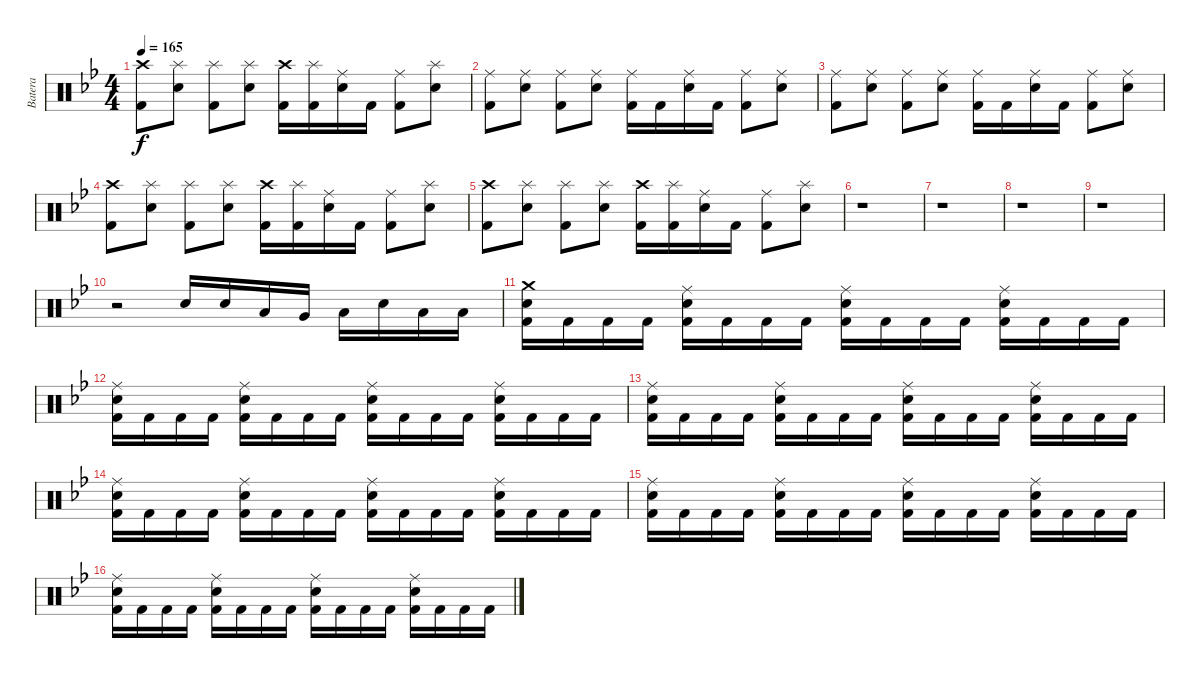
\track ("Batera" "Batera") {instrument percussion}
\staff {score}
\articulation defaults
\ts (4 4)
\tempo 165
\clef neutral
\ks bb
("Crash high (hit)" "Kick (hit) 2").8{dy f} ("Splash (hit)" "Electric Snare (hit)").8 ("Splash (hit)" "Kick (hit) 2").8 ("Splash (hit)" "Electric Snare (hit)").8 ("Crash high (hit)" "Kick (hit) 2").16 ("Splash (hit)" "Kick (hit) 2").16 ("Ride (middle)" "Electric Snare (hit)").16 "Kick (hit) 2".16 ("Ride (middle)" "Kick (hit) 2").8 ("Splash (hit)" "Electric Snare (hit)").8 |
("Ride (middle)" "Kick (hit) 2").8 ("Ride (middle)" "Electric Snare (hit)").8 ("Ride (middle)" "Kick (hit) 2").8 ("Ride (middle)" "Electric Snare (hit)").8 ("Ride (middle)" "Kick (hit) 2").16 "Kick (hit) 2".16 ("Ride (middle)" "Electric Snare (hit)").16 "Kick (hit) 2".16 ("Ride (middle)" "Kick (hit) 2").8 ("Ride (middle)" "Electric Snare (hit)").8 |
("Ride (middle)" "Kick (hit) 2").8 ("Ride (middle)" "Electric Snare (hit)").8 ("Ride (middle)" "Kick (hit) 2").8 ("Ride (middle)" "Electric Snare (hit)").8 ("Ride (middle)" "Kick (hit) 2").16 "Kick (hit) 2".16 ("Ride (middle)" "Electric Snare (hit)").16 "Kick (hit) 2".16 ("Ride (middle)" "Kick (hit) 2").8 ("Ride (middle)" "Electric Snare (hit)").8 |
("Crash high (hit)" "Kick (hit) 2").8 ("Splash (hit)" "Electric Snare (hit)").8 ("Splash (hit)" "Kick (hit) 2").8 ("Splash (hit)" "Electric Snare (hit)").8 ("Crash high (hit)" "Kick (hit) 2").16 ("Splash (hit)" "Kick (hit) 2").16 ("Ride (middle)" "Electric Snare (hit)").16 "Kick (hit) 2".16 ("Ride (middle)" "Kick (hit) 2").8 ("Splash (hit)" "Electric Snare (hit)").8 |
("Crash high (hit)" "Kick (hit) 2").8 ("Splash (hit)" "Electric Snare (hit)").8 ("Splash (hit)" "Kick (hit) 2").8 ("Splash (hit)" "Electric Snare (hit)").8 ("Crash high (hit)" "Kick (hit) 2").16 ("Splash (hit)" "Kick (hit) 2").16 ("Ride (middle)" "Electric Snare (hit)").16 "Kick (hit) 2".16 ("Ride (middle)" "Kick (hit) 2").8 ("Splash (hit)" "Electric Snare (hit)").8 |
r.1 |
r.1 |
r.1 |
r.1 |
r.2 "Electric Snare (hit)".16 "Electric Snare (hit)".16 "Low Floor Tom (hit)".16 "Very Low Tom (hit)".16 "Low Floor Tom (hit)".16 "Electric Snare (hit)".16 "Low Floor Tom (hit)".16 "Low Tom (hit)".16 |
("Crash medium (hit)" "Electric Snare (hit)" "Kick (hit) 2").16 "Kick (hit) 2".16 "Kick (hit) 2".16 "Kick (hit) 2".16 ("Ride (middle)" "Electric Snare (hit)" "Kick (hit) 2").16 "Kick (hit) 2".16 "Kick (hit) 2".16 "Kick (hit) 2".16 ("Ride (middle)" "Electric Snare (hit)" "Kick (hit) 2").16 "Kick (hit) 2".16 "Kick (hit) 2".16 "Kick (hit) 2".16 ("Ride (middle)" "Electric Snare (hit)" "Kick (hit) 2").16 "Kick (hit) 2".16 "Kick (hit) 2".16 "Kick (hit) 2".16 |
("Ride (middle)" "Electric Snare (hit)" "Kick (hit) 2").16 "Kick (hit) 2".16 "Kick (hit) 2".16 "Kick (hit) 2".16 ("Ride (middle)" "Electric Snare (hit)" "Kick (hit) 2").16 "Kick (hit) 2".16 "Kick (hit) 2".16 "Kick (hit) 2".16 ("Ride (middle)" "Electric Snare (hit)" "Kick (hit) 2").16 "Kick (hit) 2".16 "Kick (hit) 2".16 "Kick (hit) 2".16 ("Ride (middle)" "Electric Snare (hit)" "Kick (hit) 2").16 "Kick (hit) 2".16 "Kick (hit) 2".16 "Kick (hit) 2".16 |
("Ride (middle)" "Electric Snare (hit)" "Kick (hit) 2").16 "Kick (hit) 2".16 "Kick (hit) 2".16 "Kick (hit) 2".16 ("Ride (middle)" "Electric Snare (hit)" "Kick (hit) 2").16 "Kick (hit) 2".16 "Kick (hit) 2".16 "Kick (hit) 2".16 ("Ride (middle)" "Electric Snare (hit)" "Kick (hit) 2").16 "Kick (hit) 2".16 "Kick (hit) 2".16 "Kick (hit) 2".16 ("Ride (middle)" "Electric Snare (hit)" "Kick (hit) 2").16 "Kick (hit) 2".16 "Kick (hit) 2".16 "Kick (hit) 2".16 |
("Ride (middle)" "Electric Snare (hit)" "Kick (hit) 2").16 "Kick (hit) 2".16 "Kick (hit) 2".16 "Kick (hit) 2".16 ("Ride (middle)" "Electric Snare (hit)" "Kick (hit) 2").16 "Kick (hit) 2".16 "Kick (hit) 2".16 "Kick (hit) 2".16 ("Ride (middle)" "Electric Snare (hit)" "Kick (hit) 2").16 "Kick (hit) 2".16 "Kick (hit) 2".16 "Kick (hit) 2".16 ("Ride (middle)" "Electric Snare (hit)" "Kick (hit) 2").16 "Kick (hit) 2".16 "Kick (hit) 2".16 "Kick (hit) 2".16 |
("Ride (middle)" "Electric Snare (hit)" "Kick (hit) 2").16 "Kick (hit) 2".16 "Kick (hit) 2".16 "Kick (hit) 2".16 ("Ride (middle)" "Electric Snare (hit)" "Kick (hit) 2").16 "Kick (hit) 2".16 "Kick (hit) 2".16 "Kick (hit) 2".16 ("Ride (middle)" "Electric Snare (hit)" "Kick (hit) 2").16 "Kick (hit) 2".16 "Kick (hit) 2".16 "Kick (hit) 2".16 ("Ride (middle)" "Electric Snare (hit)" "Kick (hit) 2").16 "Kick (hit) 2".16 "Kick (hit) 2".16 "Kick (hit) 2".16 |
("Ride (middle)" "Electric Snare (hit)" "Kick (hit) 2").16 "Kick (hit) 2".16 "Kick (hit) 2".16 "Kick (hit) 2".16 ("Ride (middle)" "Electric Snare (hit)" "Kick (hit) 2").16 "Kick (hit) 2".16 "Kick (hit) 2".16 "Kick (hit) 2".16 ("Ride (middle)" "Electric Snare (hit)" "Kick (hit) 2").16 "Kick (hit) 2".16 "Kick (hit) 2".16 "Kick (hit) 2".16 ("Ride (middle)" "Electric Snare (hit)" "Kick (hit) 2").16 "Kick (hit) 2".16 "Kick (hit) 2".16 "Kick (hit) 2".16
